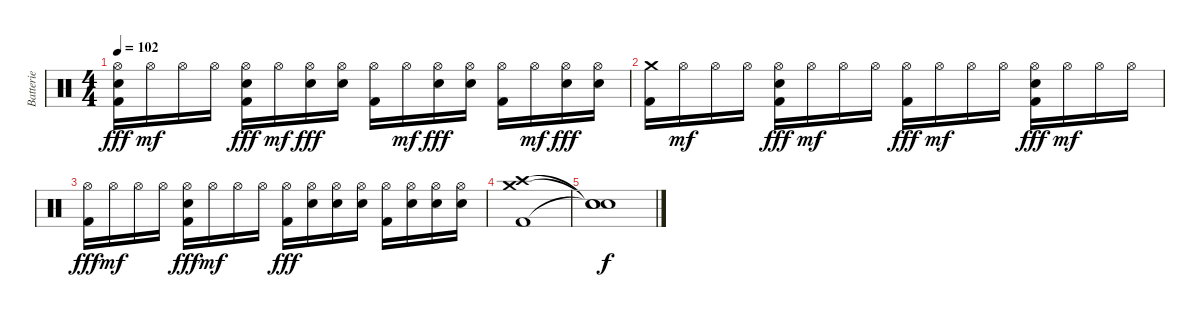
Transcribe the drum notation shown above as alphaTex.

\track ("Batterie" "Batterie") {instrument percussion}
\staff {score}
\articulation defaults
\ts (4 4)
\tempo 102
\clef neutral
\ks c
("Hi-Hat (open)" "Electric Snare (hit)" "Kick (hit) 2").16{dy fff} "Hi-Hat (open)".16{dy mf} "Hi-Hat (open)".16 "Hi-Hat (open)".16 ("Hi-Hat (open)" "Electric Snare (hit)" "Kick (hit) 2").16{dy fff} "Hi-Hat (open)".16{dy mf} ("Hi-Hat (open)" "Electric Snare (hit)").16{dy fff} ("Hi-Hat (open)" "Electric Snare (hit)").16 ("Hi-Hat (open)" "Kick (hit) 2").16 "Hi-Hat (open)".16{dy mf} ("Hi-Hat (open)" "Electric Snare (hit)").16{dy fff} ("Hi-Hat (open)" "Electric Snare (hit)").16 ("Hi-Hat (open)" "Kick (hit) 2").16 "Hi-Hat (open)".16{dy mf} ("Hi-Hat (open)" "Electric Snare (hit)").16{dy fff} ("Hi-Hat (open)" "Electric Snare (hit)").16 |
("Crash medium (hit)" "Kick (hit) 2").16 "Hi-Hat (open)".16{dy mf} "Hi-Hat (open)".16 "Hi-Hat (open)".16 ("Hi-Hat (open)" "Electric Snare (hit)" "Kick (hit) 2").16{dy fff} "Hi-Hat (open)".16{dy mf} "Hi-Hat (open)".16 "Hi-Hat (open)".16 ("Hi-Hat (open)" "Kick (hit) 2").16{dy fff} "Hi-Hat (open)".16{dy mf} "Hi-Hat (open)".16 "Hi-Hat (open)".16 ("Hi-Hat (open)" "Electric Snare (hit)" "Kick (hit) 2").16{dy fff} "Hi-Hat (open)".16{dy mf} "Hi-Hat (open)".16 "Hi-Hat (open)".16 |
("Hi-Hat (open)" "Kick (hit) 2").16{dy fff} "Hi-Hat (open)".16{dy mf} "Hi-Hat (open)".16 "Hi-Hat (open)".16 ("Hi-Hat (open)" "Electric Snare (hit)" "Kick (hit) 2").16{dy fff} "Hi-Hat (open)".16{dy mf} "Hi-Hat (open)".16 "Hi-Hat (open)".16 ("Hi-Hat (open)" "Kick (hit) 2").16{dy fff} ("Hi-Hat (open)" "Electric Snare (hit)").16 ("Hi-Hat (open)" "Electric Snare (hit)").16 ("Hi-Hat (open)" "Electric Snare (hit)").16 ("Hi-Hat (open)" "Kick (hit) 2").16 ("Hi-Hat (open)" "Electric Snare (hit)").16 ("Hi-Hat (open)" "Electric Snare (hit)").16 ("Hi-Hat (open)" "Electric Snare (hit)").16 |
("Crash high (hit)" "Crash medium (hit)" "Kick (hit) 2").1 |
("Snare (hit)"{t} "Snare (hit)"{t} "Snare (hit)"{t}).1{dy f}
